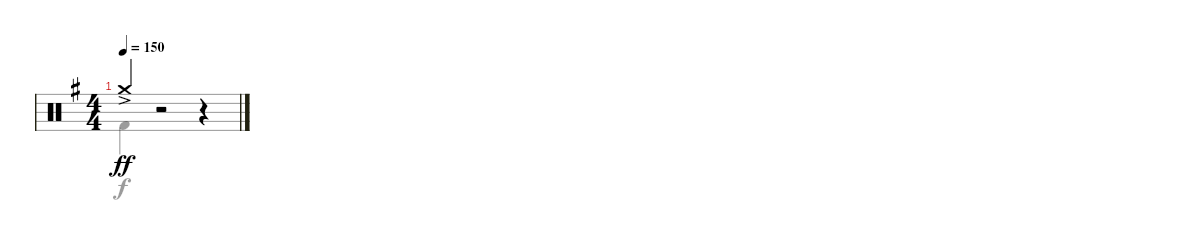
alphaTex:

\track "" {instrument percussion}
\staff {score}
\articulation defaults
\voice
\ts (4 4)
\tempo 150
\clef neutral
\ks g "Crash medium (hit)"{ac}.4{dy ff}
r.2 r.4
\voice
\clef neutral
\ottava regular
\simile none
\ks g "Kick (hit) 2".4{dy f}
r.2 r.4
